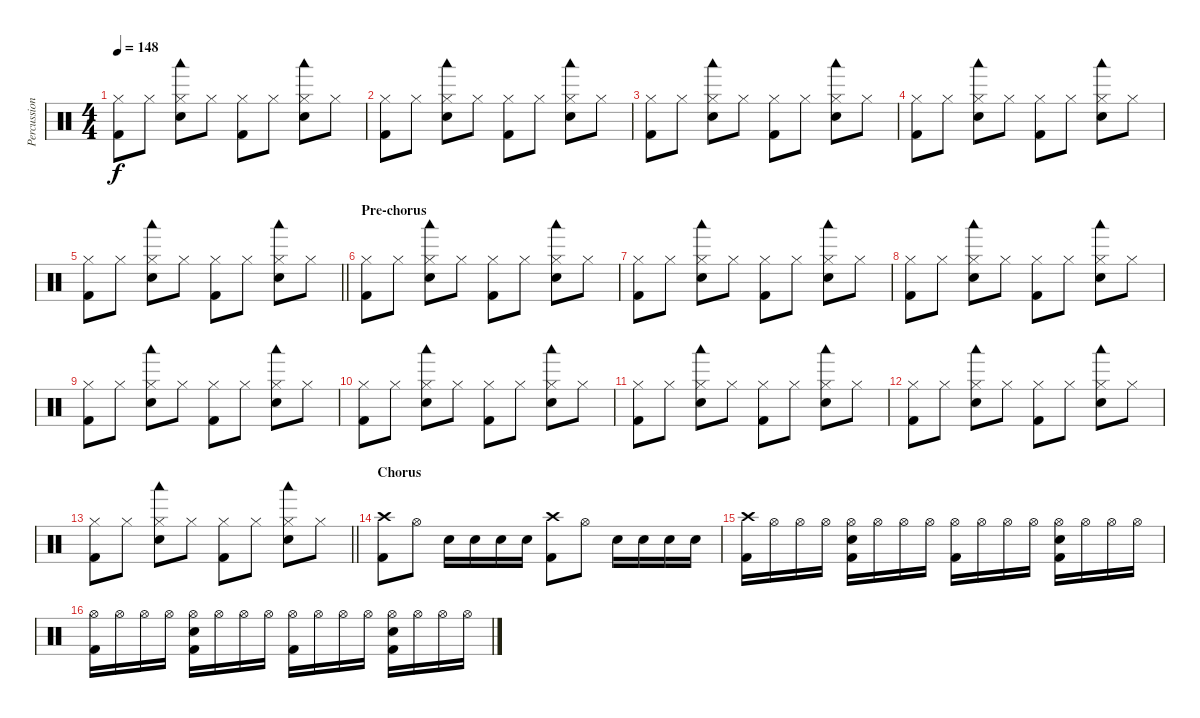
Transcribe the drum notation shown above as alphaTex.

\track ("Percussion" "Percussion") {instrument percussion}
\staff {score}
\articulation defaults
\ts (4 4)
\tempo 148
\clef neutral
\ks c
("Hi-Hat (closed)" "Kick (hit) 2").8{dy f} "Hi-Hat (closed)".8 ("Hi-Hat (closed)" "Woodblock low (hit)" "Electric Snare (hit)").8 "Hi-Hat (closed)".8 ("Hi-Hat (closed)" "Kick (hit) 2").8 "Hi-Hat (closed)".8 ("Hi-Hat (closed)" "Woodblock low (hit)" "Electric Snare (hit)").8 "Hi-Hat (closed)".8 |
("Hi-Hat (closed)" "Kick (hit) 2").8 "Hi-Hat (closed)".8 ("Hi-Hat (closed)" "Woodblock low (hit)" "Electric Snare (hit)").8 "Hi-Hat (closed)".8 ("Hi-Hat (closed)" "Kick (hit) 2").8 "Hi-Hat (closed)".8 ("Hi-Hat (closed)" "Woodblock low (hit)" "Electric Snare (hit)").8 "Hi-Hat (closed)".8 |
("Hi-Hat (closed)" "Kick (hit) 2").8 "Hi-Hat (closed)".8 ("Hi-Hat (closed)" "Woodblock low (hit)" "Electric Snare (hit)").8 "Hi-Hat (closed)".8 ("Hi-Hat (closed)" "Kick (hit) 2").8 "Hi-Hat (closed)".8 ("Hi-Hat (closed)" "Woodblock low (hit)" "Electric Snare (hit)").8 "Hi-Hat (closed)".8 |
("Hi-Hat (closed)" "Kick (hit) 2").8 "Hi-Hat (closed)".8 ("Hi-Hat (closed)" "Woodblock low (hit)" "Electric Snare (hit)").8 "Hi-Hat (closed)".8 ("Hi-Hat (closed)" "Kick (hit) 2").8 "Hi-Hat (closed)".8 ("Hi-Hat (closed)" "Woodblock low (hit)" "Electric Snare (hit)").8 "Hi-Hat (closed)".8 |
\barLineRight lightlight
("Hi-Hat (closed)" "Kick (hit) 2").8 "Hi-Hat (closed)".8 ("Hi-Hat (closed)" "Woodblock low (hit)" "Electric Snare (hit)").8 "Hi-Hat (closed)".8 ("Hi-Hat (closed)" "Kick (hit) 2").8 "Hi-Hat (closed)".8 ("Hi-Hat (closed)" "Woodblock low (hit)" "Electric Snare (hit)").8 "Hi-Hat (closed)".8 |
\section ("" "Pre-chorus")
("Hi-Hat (closed)" "Kick (hit) 2").8 "Hi-Hat (closed)".8 ("Hi-Hat (closed)" "Woodblock low (hit)" "Electric Snare (hit)").8 "Hi-Hat (closed)".8 ("Hi-Hat (closed)" "Kick (hit) 2").8 "Hi-Hat (closed)".8 ("Hi-Hat (closed)" "Woodblock low (hit)" "Electric Snare (hit)").8 "Hi-Hat (closed)".8 |
("Hi-Hat (closed)" "Kick (hit) 2").8 "Hi-Hat (closed)".8 ("Hi-Hat (closed)" "Woodblock low (hit)" "Electric Snare (hit)").8 "Hi-Hat (closed)".8 ("Hi-Hat (closed)" "Kick (hit) 2").8 "Hi-Hat (closed)".8 ("Hi-Hat (closed)" "Woodblock low (hit)" "Electric Snare (hit)").8 "Hi-Hat (closed)".8 |
("Hi-Hat (closed)" "Kick (hit) 2").8 "Hi-Hat (closed)".8 ("Hi-Hat (closed)" "Woodblock low (hit)" "Electric Snare (hit)").8 "Hi-Hat (closed)".8 ("Hi-Hat (closed)" "Kick (hit) 2").8 "Hi-Hat (closed)".8 ("Hi-Hat (closed)" "Woodblock low (hit)" "Electric Snare (hit)").8 "Hi-Hat (closed)".8 |
("Hi-Hat (closed)" "Kick (hit) 2").8 "Hi-Hat (closed)".8 ("Hi-Hat (closed)" "Woodblock low (hit)" "Electric Snare (hit)").8 "Hi-Hat (closed)".8 ("Hi-Hat (closed)" "Kick (hit) 2").8 "Hi-Hat (closed)".8 ("Hi-Hat (closed)" "Woodblock low (hit)" "Electric Snare (hit)").8 "Hi-Hat (closed)".8 |
("Hi-Hat (closed)" "Kick (hit) 2").8 "Hi-Hat (closed)".8 ("Hi-Hat (closed)" "Woodblock low (hit)" "Electric Snare (hit)").8 "Hi-Hat (closed)".8 ("Hi-Hat (closed)" "Kick (hit) 2").8 "Hi-Hat (closed)".8 ("Hi-Hat (closed)" "Woodblock low (hit)" "Electric Snare (hit)").8 "Hi-Hat (closed)".8 |
("Hi-Hat (closed)" "Kick (hit) 2").8 "Hi-Hat (closed)".8 ("Hi-Hat (closed)" "Woodblock low (hit)" "Electric Snare (hit)").8 "Hi-Hat (closed)".8 ("Hi-Hat (closed)" "Kick (hit) 2").8 "Hi-Hat (closed)".8 ("Hi-Hat (closed)" "Woodblock low (hit)" "Electric Snare (hit)").8 "Hi-Hat (closed)".8 |
("Hi-Hat (closed)" "Kick (hit) 2").8 "Hi-Hat (closed)".8 ("Hi-Hat (closed)" "Woodblock low (hit)" "Electric Snare (hit)").8 "Hi-Hat (closed)".8 ("Hi-Hat (closed)" "Kick (hit) 2").8 "Hi-Hat (closed)".8 ("Hi-Hat (closed)" "Woodblock low (hit)" "Electric Snare (hit)").8 "Hi-Hat (closed)".8 |
\barLineRight lightlight
("Hi-Hat (closed)" "Kick (hit) 2").8 "Hi-Hat (closed)".8 ("Hi-Hat (closed)" "Woodblock low (hit)" "Electric Snare (hit)").8 "Hi-Hat (closed)".8 ("Hi-Hat (closed)" "Kick (hit) 2").8 "Hi-Hat (closed)".8 ("Hi-Hat (closed)" "Woodblock low (hit)" "Electric Snare (hit)").8 "Hi-Hat (closed)".8 |
\section ("" "Chorus")
("Crash high (hit)" "Kick (hit) 2").8 "Hi-Hat (open)".8 "Electric Snare (hit)".16 "Electric Snare (hit)".16 "Electric Snare (hit)".16 "Electric Snare (hit)".16 ("Crash high (hit)" "Kick (hit) 2").8 "Hi-Hat (open)".8 "Electric Snare (hit)".16 "Electric Snare (hit)".16 "Electric Snare (hit)".16 "Electric Snare (hit)".16 |
("Crash high (hit)" "Kick (hit) 2").16 "Hi-Hat (open)".16 "Hi-Hat (open)".16 "Hi-Hat (open)".16 ("Hi-Hat (open)" "Electric Snare (hit)" "Kick (hit) 2").16 "Hi-Hat (open)".16 "Hi-Hat (open)".16 "Hi-Hat (open)".16 ("Hi-Hat (open)" "Kick (hit) 2").16 "Hi-Hat (open)".16 "Hi-Hat (open)".16 "Hi-Hat (open)".16 ("Hi-Hat (open)" "Electric Snare (hit)" "Kick (hit) 2").16 "Hi-Hat (open)".16 "Hi-Hat (open)".16 "Hi-Hat (open)".16 |
("Hi-Hat (open)" "Kick (hit) 2").16 "Hi-Hat (open)".16 "Hi-Hat (open)".16 "Hi-Hat (open)".16 ("Hi-Hat (open)" "Electric Snare (hit)" "Kick (hit) 2").16 "Hi-Hat (open)".16 "Hi-Hat (open)".16 "Hi-Hat (open)".16 ("Hi-Hat (open)" "Kick (hit) 2").16 "Hi-Hat (open)".16 "Hi-Hat (open)".16 "Hi-Hat (open)".16 ("Hi-Hat (open)" "Electric Snare (hit)" "Kick (hit) 2").16 "Hi-Hat (open)".16 "Hi-Hat (open)".16 "Hi-Hat (open)".16
